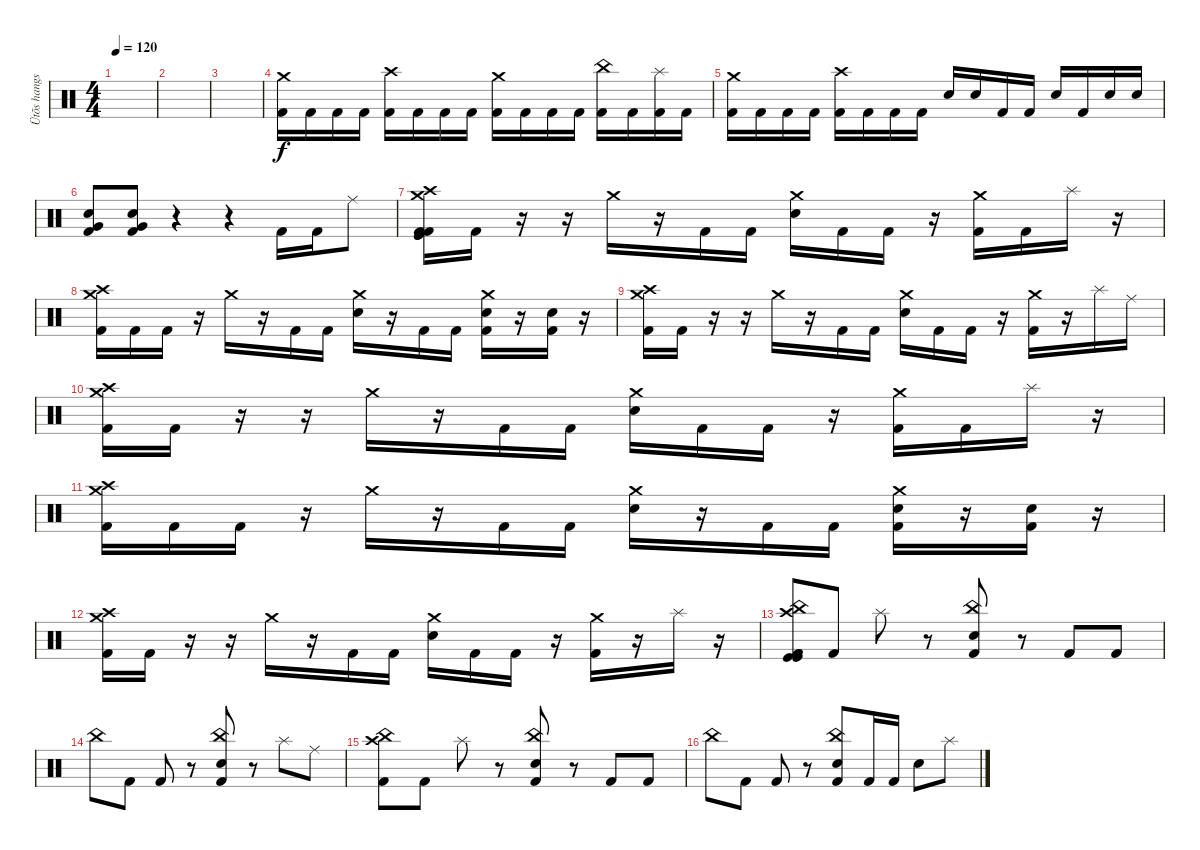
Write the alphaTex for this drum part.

\track ("Ütõs hangszer" "Ütõs hangs") {instrument percussion}
\staff {score}
\articulation defaults
\ts (4 4)
\tempo 120
\clef neutral
\ks c
|
|
|
("Crash medium (hit)" "Kick (hit) 2").16 "Kick (hit) 2".16 "Kick (hit) 2".16 "Kick (hit) 2".16 ("Crash high (hit)" "Kick (hit) 2").16 "Kick (hit) 2".16 "Kick (hit) 2".16 "Kick (hit) 2".16 ("Crash medium (hit)" "Kick (hit) 2").16 "Kick (hit) 2".16 "Kick (hit) 2".16 "Kick (hit) 2".16 ("China (hit)" "Kick (hit) 2").16 "Kick (hit) 2".16 ("Splash (hit)" "Kick (hit) 2").16 "Kick (hit) 2".16 |
("Crash medium (hit)" "Kick (hit) 2").16 "Kick (hit) 2".16 "Kick (hit) 2".16 "Kick (hit) 2".16 ("Crash high (hit)" "Kick (hit) 2").16 "Kick (hit) 2".16 "Kick (hit) 2".16 "Kick (hit) 2".16 "Electric Snare (hit)".16 "Electric Snare (hit)".16 "Kick (hit) 2".16 "Kick (hit) 2".16 "Electric Snare (hit)".16 "Kick (hit) 2".16 "Electric Snare (hit)".16 "Electric Snare (hit)".16 |
("Very Low Tom (hit)" "Electric Snare (hit)" "Kick (hit) 2").8 ("Very Low Tom (hit)" "Electric Snare (hit)" "Kick (hit) 2").8 r.4 r.4 "Kick (hit) 2".16 "Kick (hit) 2".16 "Ride (middle)".8 |
("Crash medium (hit)" "Crash high (hit)" "Kick (hit)" "Kick (hit) 2" "Kick (hit)" "Kick (hit) 2").16 "Kick (hit) 2".16 r.16 r.16 "Crash medium (hit)".16 r.16 "Kick (hit) 2".16 "Kick (hit) 2".16 ("Crash medium (hit)" "Electric Snare (hit)").16 "Kick (hit) 2".16 "Kick (hit) 2".16 r.16 ("Crash medium (hit)" "Kick (hit) 2").16 "Kick (hit) 2".16 "Splash (hit)".16 r.16 |
("Crash medium (hit)" "Crash high (hit)" "Kick (hit) 2").16 "Kick (hit) 2".16 "Kick (hit) 2".16 r.16 "Crash medium (hit)".16 r.16 "Kick (hit) 2".16 "Kick (hit) 2".16 ("Crash medium (hit)" "Electric Snare (hit)").16 r.16 "Kick (hit) 2".16 "Kick (hit) 2".16 ("Crash medium (hit)" "Electric Snare (hit)" "Kick (hit) 2").16 r.16 ("Electric Snare (hit)" "Kick (hit) 2").16 r.16 |
("Crash medium (hit)" "Crash high (hit)" "Kick (hit) 2").16 "Kick (hit) 2".16 r.16 r.16 "Crash medium (hit)".16 r.16 "Kick (hit) 2".16 "Kick (hit) 2".16 ("Crash medium (hit)" "Electric Snare (hit)").16 "Kick (hit) 2".16 "Kick (hit) 2".16 r.16 ("Crash medium (hit)" "Kick (hit) 2").16 r.16 "Splash (hit)".16 "Ride (middle)".16 |
("Crash medium (hit)" "Crash high (hit)" "Kick (hit) 2").16 "Kick (hit) 2".16 r.16 r.16 "Crash medium (hit)".16 r.16 "Kick (hit) 2".16 "Kick (hit) 2".16 ("Crash medium (hit)" "Electric Snare (hit)").16 "Kick (hit) 2".16 "Kick (hit) 2".16 r.16 ("Crash medium (hit)" "Kick (hit) 2").16 "Kick (hit) 2".16 "Splash (hit)".16 r.16 |
("Crash medium (hit)" "Crash high (hit)" "Kick (hit) 2").16 "Kick (hit) 2".16 "Kick (hit) 2".16 r.16 "Crash medium (hit)".16 r.16 "Kick (hit) 2".16 "Kick (hit) 2".16 ("Crash medium (hit)" "Electric Snare (hit)").16 r.16 "Kick (hit) 2".16 "Kick (hit) 2".16 ("Crash medium (hit)" "Electric Snare (hit)" "Kick (hit) 2").16 r.16 ("Electric Snare (hit)" "Kick (hit) 2").16 r.16 |
("Crash medium (hit)" "Crash high (hit)" "Kick (hit) 2").16 "Kick (hit) 2".16 r.16 r.16 "Crash medium (hit)".16 r.16 "Kick (hit) 2".16 "Kick (hit) 2".16 ("Crash medium (hit)" "Electric Snare (hit)").16 "Kick (hit) 2".16 "Kick (hit) 2".16 r.16 ("Crash medium (hit)" "Kick (hit) 2").16 r.16 "Splash (hit)".16 r.16 |
("China (hit)" "Crash high (hit)" "Kick (hit)" "Kick (hit) 2" "Kick (hit)" "Kick (hit) 2").8 "Kick (hit) 2".8 "Splash (hit)".8 r.8 ("China (hit)" "Electric Snare (hit)" "Kick (hit) 2").8 r.8 "Kick (hit) 2".8 "Kick (hit) 2".8 |
"China (hit)".8 "Kick (hit) 2".8 "Kick (hit) 2".8 r.8 ("China (hit)" "Electric Snare (hit)" "Kick (hit) 2").8 r.8 "Splash (hit)".8 "Ride (middle)".8 |
("China (hit)" "Crash high (hit)" "Kick (hit) 2").8 "Kick (hit) 2".8 "Splash (hit)".8 r.8 ("China (hit)" "Electric Snare (hit)" "Kick (hit) 2").8 r.8 "Kick (hit) 2".8 "Kick (hit) 2".8 |
"China (hit)".8 "Kick (hit) 2".8 "Kick (hit) 2".8 r.8 ("China (hit)" "Electric Snare (hit)" "Kick (hit) 2").8 "Kick (hit) 2".16 "Kick (hit) 2".16 "Electric Snare (hit)".8 "Splash (hit)".8
